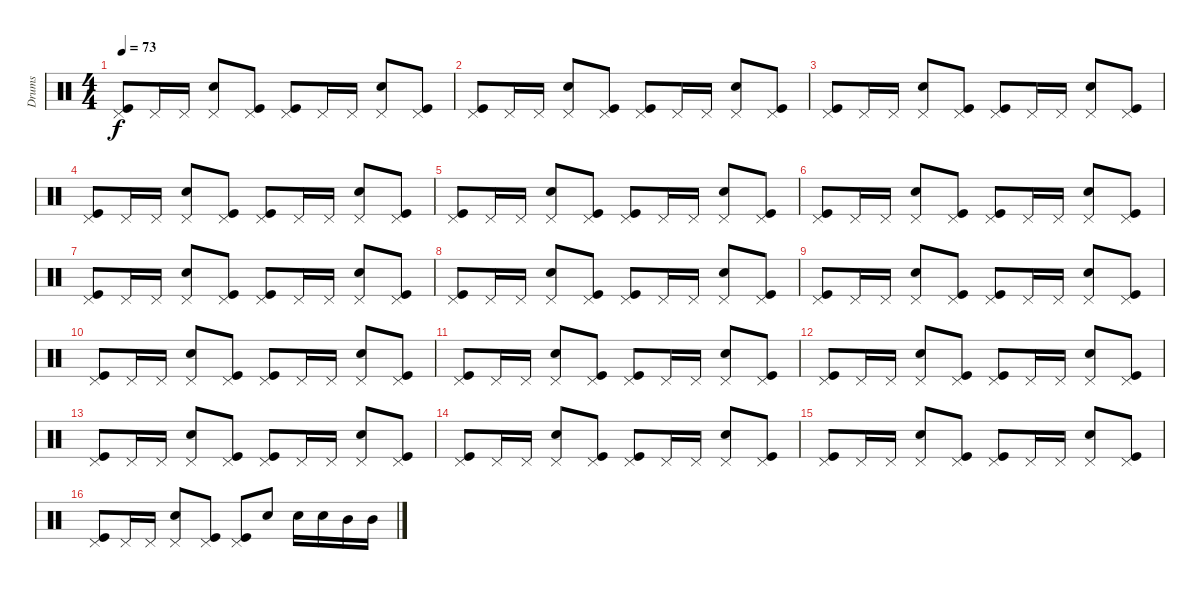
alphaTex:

\track ("Drums" "Drums") {instrument percussion}
\staff {score}
\articulation defaults
\ts (4 4)
\tempo 73
\clef neutral
\ks c
("Kick (hit)" "Pedal Hi-Hat (hit)").8{dy f} "Pedal Hi-Hat (hit)".16 "Pedal Hi-Hat (hit)".16 ("Snare (hit) 2" "Pedal Hi-Hat (hit)").8 ("Kick (hit)" "Pedal Hi-Hat (hit)").8 ("Pedal Hi-Hat (hit)" "Kick (hit)").8 "Pedal Hi-Hat (hit)".16 "Pedal Hi-Hat (hit)".16 ("Snare (hit) 2" "Pedal Hi-Hat (hit)").8 ("Kick (hit)" "Pedal Hi-Hat (hit)").8 |
("Kick (hit)" "Pedal Hi-Hat (hit)").8 "Pedal Hi-Hat (hit)".16 "Pedal Hi-Hat (hit)".16 ("Snare (hit) 2" "Pedal Hi-Hat (hit)").8 ("Kick (hit)" "Pedal Hi-Hat (hit)").8 ("Kick (hit)" "Pedal Hi-Hat (hit)").8 "Pedal Hi-Hat (hit)".16 "Pedal Hi-Hat (hit)".16 ("Snare (hit) 2" "Pedal Hi-Hat (hit)").8 ("Pedal Hi-Hat (hit)" "Kick (hit)").8 |
("Kick (hit)" "Pedal Hi-Hat (hit)").8 "Pedal Hi-Hat (hit)".16 "Pedal Hi-Hat (hit)".16 ("Snare (hit) 2" "Pedal Hi-Hat (hit)").8 ("Kick (hit)" "Pedal Hi-Hat (hit)").8 ("Kick (hit)" "Pedal Hi-Hat (hit)").8 "Pedal Hi-Hat (hit)".16 "Pedal Hi-Hat (hit)".16 ("Snare (hit) 2" "Pedal Hi-Hat (hit)").8 ("Pedal Hi-Hat (hit)" "Kick (hit)").8 |
("Kick (hit)" "Pedal Hi-Hat (hit)").8 "Pedal Hi-Hat (hit)".16 "Pedal Hi-Hat (hit)".16 ("Snare (hit) 2" "Pedal Hi-Hat (hit)").8 ("Kick (hit)" "Pedal Hi-Hat (hit)").8 ("Kick (hit)" "Pedal Hi-Hat (hit)").8 "Pedal Hi-Hat (hit)".16 "Pedal Hi-Hat (hit)".16 ("Snare (hit) 2" "Pedal Hi-Hat (hit)").8 ("Pedal Hi-Hat (hit)" "Kick (hit)").8 |
("Kick (hit)" "Pedal Hi-Hat (hit)").8 "Pedal Hi-Hat (hit)".16 "Pedal Hi-Hat (hit)".16 ("Snare (hit) 2" "Pedal Hi-Hat (hit)").8 ("Kick (hit)" "Pedal Hi-Hat (hit)").8 ("Kick (hit)" "Pedal Hi-Hat (hit)").8 "Pedal Hi-Hat (hit)".16 "Pedal Hi-Hat (hit)".16 ("Snare (hit) 2" "Pedal Hi-Hat (hit)").8 ("Pedal Hi-Hat (hit)" "Kick (hit)").8 |
("Kick (hit)" "Pedal Hi-Hat (hit)").8 "Pedal Hi-Hat (hit)".16 "Pedal Hi-Hat (hit)".16 ("Snare (hit) 2" "Pedal Hi-Hat (hit)").8 ("Kick (hit)" "Pedal Hi-Hat (hit)").8 ("Kick (hit)" "Pedal Hi-Hat (hit)").8 "Pedal Hi-Hat (hit)".16 "Pedal Hi-Hat (hit)".16 ("Snare (hit) 2" "Pedal Hi-Hat (hit)").8 ("Pedal Hi-Hat (hit)" "Kick (hit)").8 |
("Kick (hit)" "Pedal Hi-Hat (hit)").8 "Pedal Hi-Hat (hit)".16 "Pedal Hi-Hat (hit)".16 ("Snare (hit) 2" "Pedal Hi-Hat (hit)").8 ("Kick (hit)" "Pedal Hi-Hat (hit)").8 ("Kick (hit)" "Pedal Hi-Hat (hit)").8 "Pedal Hi-Hat (hit)".16 "Pedal Hi-Hat (hit)".16 ("Snare (hit) 2" "Pedal Hi-Hat (hit)").8 ("Pedal Hi-Hat (hit)" "Kick (hit)").8 |
("Kick (hit)" "Pedal Hi-Hat (hit)").8 "Pedal Hi-Hat (hit)".16 "Pedal Hi-Hat (hit)".16 ("Snare (hit) 2" "Pedal Hi-Hat (hit)").8 ("Kick (hit)" "Pedal Hi-Hat (hit)").8 ("Kick (hit)" "Pedal Hi-Hat (hit)").8 "Pedal Hi-Hat (hit)".16 "Pedal Hi-Hat (hit)".16 ("Snare (hit) 2" "Pedal Hi-Hat (hit)").8 ("Pedal Hi-Hat (hit)" "Kick (hit)").8 |
("Kick (hit)" "Pedal Hi-Hat (hit)").8 "Pedal Hi-Hat (hit)".16 "Pedal Hi-Hat (hit)".16 ("Snare (hit) 2" "Pedal Hi-Hat (hit)").8 ("Kick (hit)" "Pedal Hi-Hat (hit)").8 ("Kick (hit)" "Pedal Hi-Hat (hit)").8 "Pedal Hi-Hat (hit)".16 "Pedal Hi-Hat (hit)".16 ("Snare (hit) 2" "Pedal Hi-Hat (hit)").8 ("Pedal Hi-Hat (hit)" "Kick (hit)").8 |
("Kick (hit)" "Pedal Hi-Hat (hit)").8 "Pedal Hi-Hat (hit)".16 "Pedal Hi-Hat (hit)".16 ("Snare (hit) 2" "Pedal Hi-Hat (hit)").8 ("Kick (hit)" "Pedal Hi-Hat (hit)").8 ("Kick (hit)" "Pedal Hi-Hat (hit)").8 "Pedal Hi-Hat (hit)".16 "Pedal Hi-Hat (hit)".16 ("Snare (hit) 2" "Pedal Hi-Hat (hit)").8 ("Pedal Hi-Hat (hit)" "Kick (hit)").8 |
("Kick (hit)" "Pedal Hi-Hat (hit)").8 "Pedal Hi-Hat (hit)".16 "Pedal Hi-Hat (hit)".16 ("Snare (hit) 2" "Pedal Hi-Hat (hit)").8 ("Kick (hit)" "Pedal Hi-Hat (hit)").8 ("Kick (hit)" "Pedal Hi-Hat (hit)").8 "Pedal Hi-Hat (hit)".16 "Pedal Hi-Hat (hit)".16 ("Snare (hit) 2" "Pedal Hi-Hat (hit)").8 ("Pedal Hi-Hat (hit)" "Kick (hit)").8 |
("Kick (hit)" "Pedal Hi-Hat (hit)").8 "Pedal Hi-Hat (hit)".16 "Pedal Hi-Hat (hit)".16 ("Snare (hit) 2" "Pedal Hi-Hat (hit)").8 ("Kick (hit)" "Pedal Hi-Hat (hit)").8 ("Kick (hit)" "Pedal Hi-Hat (hit)").8 "Pedal Hi-Hat (hit)".16 "Pedal Hi-Hat (hit)".16 ("Snare (hit) 2" "Pedal Hi-Hat (hit)").8 ("Pedal Hi-Hat (hit)" "Kick (hit)").8 |
("Kick (hit)" "Pedal Hi-Hat (hit)").8 "Pedal Hi-Hat (hit)".16 "Pedal Hi-Hat (hit)".16 ("Snare (hit) 2" "Pedal Hi-Hat (hit)").8 ("Kick (hit)" "Pedal Hi-Hat (hit)").8 ("Kick (hit)" "Pedal Hi-Hat (hit)").8 "Pedal Hi-Hat (hit)".16 "Pedal Hi-Hat (hit)".16 ("Snare (hit) 2" "Pedal Hi-Hat (hit)").8 ("Pedal Hi-Hat (hit)" "Kick (hit)").8 |
("Kick (hit)" "Pedal Hi-Hat (hit)").8 "Pedal Hi-Hat (hit)".16 "Pedal Hi-Hat (hit)".16 ("Snare (hit) 2" "Pedal Hi-Hat (hit)").8 ("Kick (hit)" "Pedal Hi-Hat (hit)").8 ("Kick (hit)" "Pedal Hi-Hat (hit)").8 "Pedal Hi-Hat (hit)".16 "Pedal Hi-Hat (hit)".16 ("Snare (hit) 2" "Pedal Hi-Hat (hit)").8 ("Pedal Hi-Hat (hit)" "Kick (hit)").8 |
("Kick (hit)" "Pedal Hi-Hat (hit)").8 "Pedal Hi-Hat (hit)".16 "Pedal Hi-Hat (hit)".16 ("Snare (hit) 2" "Pedal Hi-Hat (hit)").8 ("Kick (hit)" "Pedal Hi-Hat (hit)").8 ("Kick (hit)" "Pedal Hi-Hat (hit)").8 "Pedal Hi-Hat (hit)".16 "Pedal Hi-Hat (hit)".16 ("Snare (hit) 2" "Pedal Hi-Hat (hit)").8 ("Pedal Hi-Hat (hit)" "Kick (hit)").8 |
("Pedal Hi-Hat (hit)" "Kick (hit)").8 "Pedal Hi-Hat (hit)".16 "Pedal Hi-Hat (hit)".16 ("Pedal Hi-Hat (hit)" "Snare (hit) 2").8 ("Pedal Hi-Hat (hit)" "Kick (hit)").8 ("Pedal Hi-Hat (hit)" "Kick (hit)").8 "Snare (hit) 2".8 "Snare (hit) 2".16 "Snare (hit) 2".16 "Mid Tom (hit)".16 "Mid Tom (hit)".16
